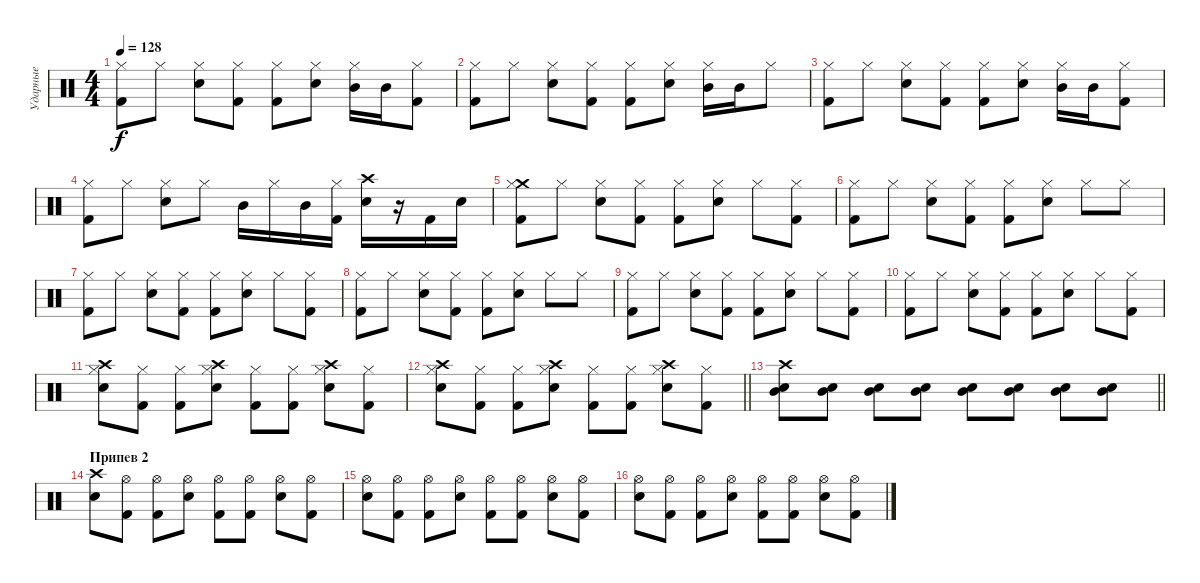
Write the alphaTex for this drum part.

\track ("Ударные" "Ударные") {instrument percussion}
\staff {score}
\articulation defaults
\ts (4 4)
\tempo 128
\clef neutral
\ks c
("Kick (hit) 2" "Hi-Hat (closed)").8{dy f} "Hi-Hat (closed)".8 ("Snare (hit) 2" "Hi-Hat (closed)").8 ("Kick (hit) 2" "Hi-Hat (closed)").8 ("Kick (hit) 2" "Hi-Hat (closed)").8 ("Snare (hit) 2" "Hi-Hat (closed)").8 ("Mid Tom (hit)" "Hi-Hat (closed)").16 "Mid Tom (hit)".16 ("Kick (hit) 2" "Hi-Hat (closed)").8 |
("Kick (hit) 2" "Hi-Hat (closed)").8 "Hi-Hat (closed)".8 ("Snare (hit) 2" "Hi-Hat (closed)").8 ("Kick (hit) 2" "Hi-Hat (closed)").8 ("Kick (hit) 2" "Hi-Hat (closed)").8 ("Snare (hit) 2" "Hi-Hat (closed)").8 ("Mid Tom (hit)" "Hi-Hat (closed)").16 "Mid Tom (hit)".16 "Hi-Hat (closed)".8 |
("Kick (hit) 2" "Hi-Hat (closed)").8 "Hi-Hat (closed)".8 ("Snare (hit) 2" "Hi-Hat (closed)").8 ("Kick (hit) 2" "Hi-Hat (closed)").8 ("Kick (hit) 2" "Hi-Hat (closed)").8 ("Snare (hit) 2" "Hi-Hat (closed)").8 ("Mid Tom (hit)" "Hi-Hat (closed)").16 "Mid Tom (hit)".16 ("Kick (hit) 2" "Hi-Hat (closed)").8 |
("Kick (hit) 2" "Hi-Hat (closed)").8 "Hi-Hat (closed)".8 ("Snare (hit) 2" "Hi-Hat (closed)").8 "Hi-Hat (closed)".8 "Mid Tom (hit)".16 "Hi-Hat (closed)".16 "Mid Tom (hit)".16 ("Kick (hit) 2" "Hi-Hat (closed)").16 ("Snare (hit) 2" "Crash high (hit)").16 r.16 "Kick (hit) 2".16 "Snare (hit) 2".16 |
("Kick (hit) 2" "Crash medium (hit)" "Hi-Hat (closed)").8 "Hi-Hat (closed)".8 ("Snare (hit) 2" "Hi-Hat (closed)").8 ("Kick (hit) 2" "Hi-Hat (closed)").8 ("Kick (hit) 2" "Hi-Hat (closed)").8 ("Snare (hit) 2" "Hi-Hat (closed)").8 "Hi-Hat (closed)".8 ("Kick (hit) 2" "Hi-Hat (closed)").8 |
("Kick (hit) 2" "Hi-Hat (closed)").8 "Hi-Hat (closed)".8 ("Snare (hit) 2" "Hi-Hat (closed)").8 ("Kick (hit) 2" "Hi-Hat (closed)").8 ("Kick (hit) 2" "Hi-Hat (closed)").8 ("Snare (hit) 2" "Hi-Hat (closed)").8 "Hi-Hat (closed)".8 "Hi-Hat (closed)".8 |
("Kick (hit) 2" "Hi-Hat (closed)").8 "Hi-Hat (closed)".8 ("Snare (hit) 2" "Hi-Hat (closed)").8 ("Kick (hit) 2" "Hi-Hat (closed)").8 ("Kick (hit) 2" "Hi-Hat (closed)").8 ("Snare (hit) 2" "Hi-Hat (closed)").8 "Hi-Hat (closed)".8 ("Kick (hit) 2" "Hi-Hat (closed)").8 |
("Kick (hit) 2" "Hi-Hat (closed)").8 "Hi-Hat (closed)".8 ("Snare (hit) 2" "Hi-Hat (closed)").8 ("Kick (hit) 2" "Hi-Hat (closed)").8 ("Kick (hit) 2" "Hi-Hat (closed)").8 ("Snare (hit) 2" "Hi-Hat (closed)").8 "Hi-Hat (closed)".8 "Hi-Hat (closed)".8 |
("Kick (hit) 2" "Hi-Hat (closed)").8 "Hi-Hat (closed)".8 ("Snare (hit) 2" "Hi-Hat (closed)").8 ("Kick (hit) 2" "Hi-Hat (closed)").8 ("Kick (hit) 2" "Hi-Hat (closed)").8 ("Snare (hit) 2" "Hi-Hat (closed)").8 "Hi-Hat (closed)".8 ("Kick (hit) 2" "Hi-Hat (closed)").8 |
("Kick (hit) 2" "Hi-Hat (closed)").8 "Hi-Hat (closed)".8 ("Snare (hit) 2" "Hi-Hat (closed)").8 ("Kick (hit) 2" "Hi-Hat (closed)").8 ("Kick (hit) 2" "Hi-Hat (closed)").8 ("Snare (hit) 2" "Hi-Hat (closed)").8 "Hi-Hat (closed)".8 ("Kick (hit) 2" "Hi-Hat (closed)").8 |
("Crash high (hit)" "Snare (hit) 2" "Hi-Hat (closed)").8 ("Kick (hit) 2" "Hi-Hat (closed)").8 ("Kick (hit) 2" "Hi-Hat (closed)").8 ("Crash high (hit)" "Snare (hit) 2" "Hi-Hat (closed)").8 ("Kick (hit) 2" "Hi-Hat (closed)").8 ("Kick (hit) 2" "Hi-Hat (closed)").8 ("Crash high (hit)" "Snare (hit) 2" "Hi-Hat (closed)").8 ("Kick (hit) 2" "Hi-Hat (closed)").8 |
\barLineRight lightlight
("Crash high (hit)" "Snare (hit) 2" "Hi-Hat (closed)").8 ("Kick (hit) 2" "Hi-Hat (closed)").8 ("Kick (hit) 2" "Hi-Hat (closed)").8 ("Crash high (hit)" "Snare (hit) 2" "Hi-Hat (closed)").8 ("Kick (hit) 2" "Hi-Hat (closed)").8 ("Kick (hit) 2" "Hi-Hat (closed)").8 ("Crash high (hit)" "Snare (hit) 2" "Hi-Hat (closed)").8 ("Kick (hit) 2" "Hi-Hat (closed)").8 |
\barLineRight lightlight
("Crash high (hit)" "Snare (hit) 2" "Mid Tom (hit)").8 ("Snare (hit) 2" "Mid Tom (hit)").8 ("Snare (hit) 2" "Mid Tom (hit)").8 ("Snare (hit) 2" "Mid Tom (hit)").8 ("Snare (hit) 2" "Mid Tom (hit)").8 ("Snare (hit) 2" "Mid Tom (hit)").8 ("Snare (hit) 2" "Mid Tom (hit)").8 ("Snare (hit) 2" "Mid Tom (hit)").8 |
\section ("" "Припев 2")
("Crash high (hit)" "Snare (hit) 2").8 ("Kick (hit) 2" "Hi-Hat (open)").8 ("Kick (hit) 2" "Hi-Hat (open)").8 ("Snare (hit) 2" "Hi-Hat (open)").8 ("Kick (hit) 2" "Hi-Hat (open)").8 ("Kick (hit) 2" "Hi-Hat (open)").8 ("Snare (hit) 2" "Hi-Hat (open)").8 ("Kick (hit) 2" "Hi-Hat (open)").8 |
("Snare (hit) 2" "Hi-Hat (open)").8 ("Kick (hit) 2" "Hi-Hat (open)").8 ("Kick (hit) 2" "Hi-Hat (open)").8 ("Snare (hit) 2" "Hi-Hat (open)").8 ("Kick (hit) 2" "Hi-Hat (open)").8 ("Kick (hit) 2" "Hi-Hat (open)").8 ("Snare (hit) 2" "Hi-Hat (open)").8 ("Kick (hit) 2" "Hi-Hat (open)").8 |
("Snare (hit) 2" "Hi-Hat (open)").8 ("Kick (hit) 2" "Hi-Hat (open)").8 ("Kick (hit) 2" "Hi-Hat (open)").8 ("Snare (hit) 2" "Hi-Hat (open)").8 ("Kick (hit) 2" "Hi-Hat (open)").8 ("Kick (hit) 2" "Hi-Hat (open)").8 ("Snare (hit) 2" "Hi-Hat (open)").8 ("Kick (hit) 2" "Hi-Hat (open)").8
